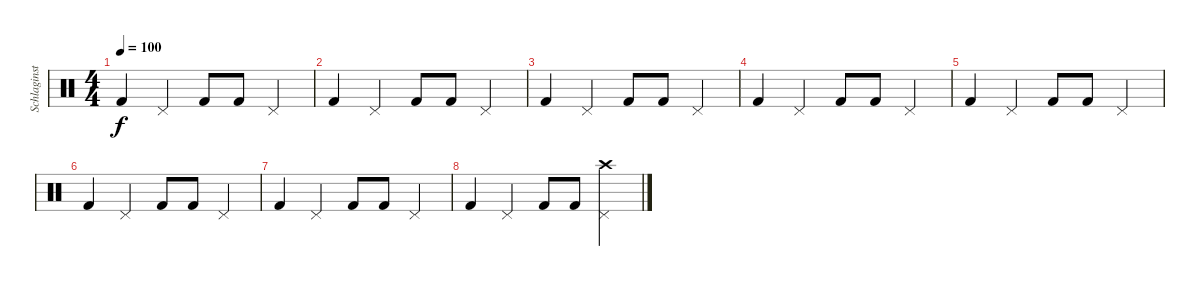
\track ("Schlaginstrumente - Auswahl" "Schlaginst") {instrument percussion}
\staff {score}
\articulation defaults
\ts (4 4)
\tempo 100
\clef neutral
\ks c "Kick (hit) 2".4{dy f} "Pedal Hi-Hat (hit)".4 "Kick (hit) 2".8 "Kick (hit) 2".8 "Pedal Hi-Hat (hit)".4
|
"Kick (hit) 2".4 "Pedal Hi-Hat (hit)".4 "Kick (hit) 2".8 "Kick (hit) 2".8 "Pedal Hi-Hat (hit)".4 |
"Kick (hit) 2".4 "Pedal Hi-Hat (hit)".4 "Kick (hit) 2".8 "Kick (hit) 2".8 "Pedal Hi-Hat (hit)".4 |
"Kick (hit) 2".4 "Pedal Hi-Hat (hit)".4 "Kick (hit) 2".8 "Kick (hit) 2".8 "Pedal Hi-Hat (hit)".4 |
"Kick (hit) 2".4 "Pedal Hi-Hat (hit)".4 "Kick (hit) 2".8 "Kick (hit) 2".8 "Pedal Hi-Hat (hit)".4 |
"Kick (hit) 2".4 "Pedal Hi-Hat (hit)".4 "Kick (hit) 2".8 "Kick (hit) 2".8 "Pedal Hi-Hat (hit)".4 |
"Kick (hit) 2".4 "Pedal Hi-Hat (hit)".4 "Kick (hit) 2".8 "Kick (hit) 2".8 "Pedal Hi-Hat (hit)".4 |
"Kick (hit) 2".4 "Pedal Hi-Hat (hit)".4 "Kick (hit) 2".8 "Kick (hit) 2".8 ("Crash high (hit)" "Pedal Hi-Hat (hit)").4
